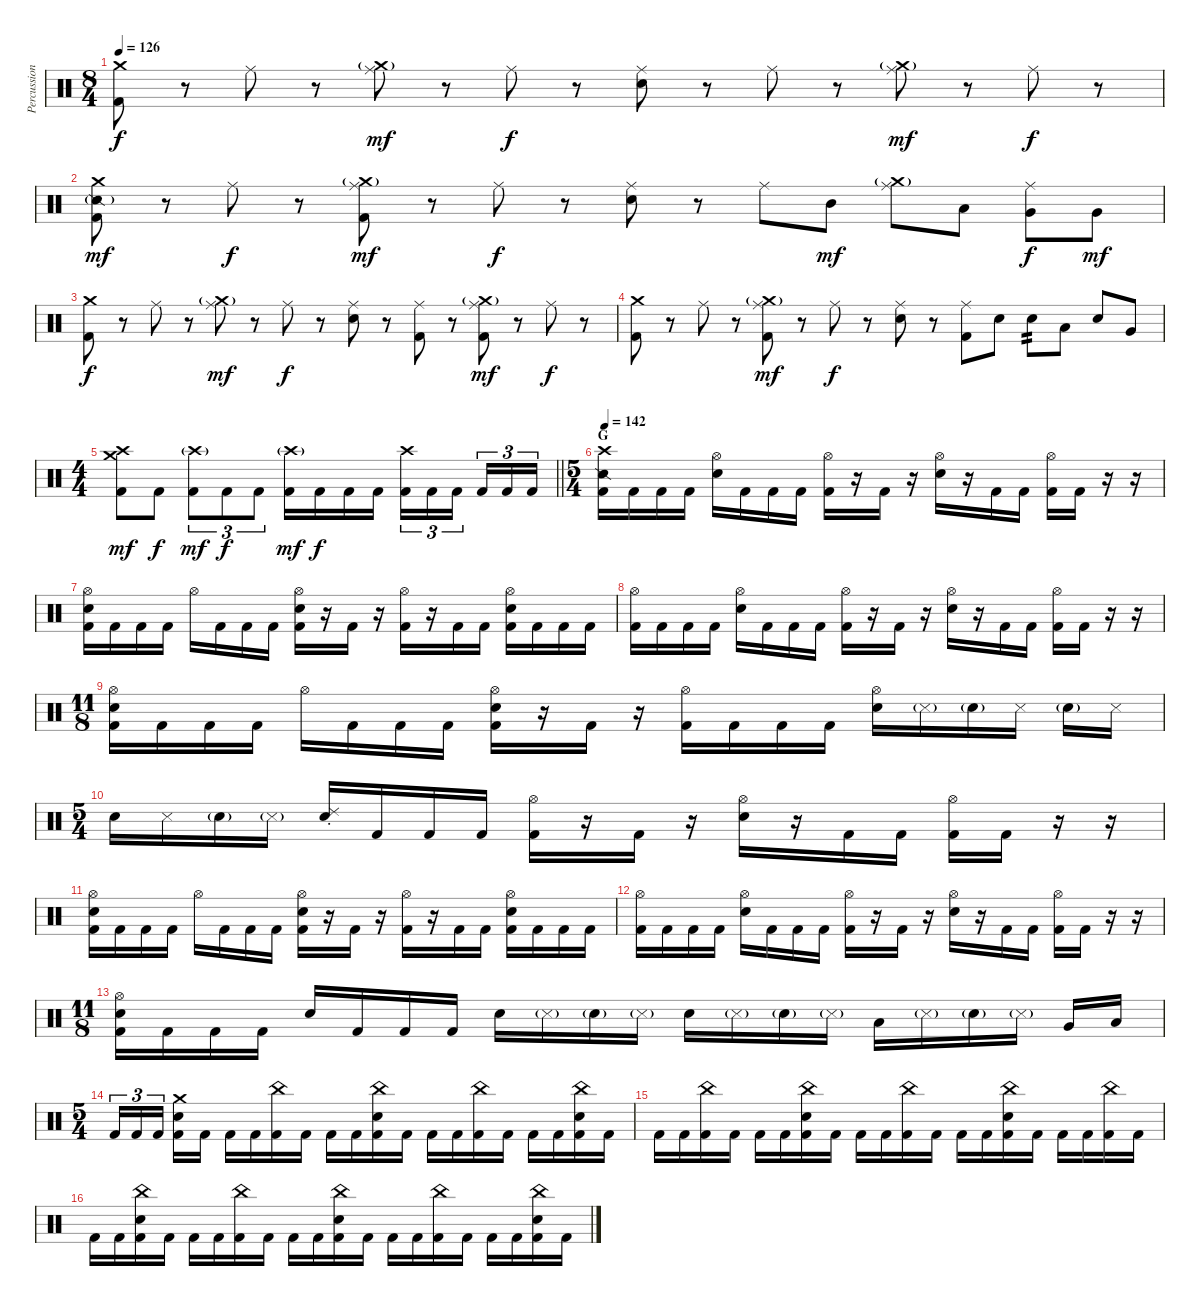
\track ("Percussion" "Percussion") {instrument percussion}
\staff {score}
\articulation defaults
\ts (8 4)
\tempo 126
\clef neutral
\ks c
("Crash medium (hit)" "Kick (hit) 2").8{dy f} r.8 "Ride (middle)".8 r.8 ("Ride (middle)" "Crash medium (hit)"{g}).8{dy mf} r.8 "Ride (middle)".8{dy f} r.8 ("Ride (middle)" "Snare (hit) 2").8 r.8 "Ride (middle)".8 r.8 ("Ride (middle)" "Crash medium (hit)"{g}).8{dy mf} r.8 "Ride (middle)".8{dy f} r.8 |
("Crash medium (hit)" "Snare (side stick) 2"{g} "Kick (hit) 2").8{dy mf} r.8 "Ride (middle)".8{dy f} r.8 ("Ride (middle)" "Crash medium (hit)"{g} "Kick (hit) 2").8{dy mf} r.8 "Ride (middle)".8{dy f} r.8 ("Ride (middle)" "Snare (hit) 2").8 r.8 "Ride (middle)".8 "Mid Tom (hit)".8{dy mf} ("Ride (middle)" "Crash medium (hit)"{g}).8 "Low Tom (hit)".8 ("Ride (middle)" "Very Low Tom (hit)").8{dy f} "Very Low Tom (hit)".8{dy mf} |
("Crash medium (hit)" "Kick (hit) 2").8{dy f} r.8 "Ride (middle)".8 r.8 ("Ride (middle)" "Crash medium (hit)"{g}).8{dy mf} r.8 "Ride (middle)".8{dy f} r.8 ("Ride (middle)" "Snare (hit) 2").8 r.8 ("Ride (middle)" "Kick (hit) 2").8 r.8 ("Ride (middle)" "Crash medium (hit)"{g} "Kick (hit) 2").8{dy mf} r.8 "Ride (middle)".8{dy f} r.8 |
("Crash medium (hit)" "Kick (hit) 2").8 r.8 "Ride (middle)".8 r.8 ("Ride (middle)" "Crash medium (hit)"{g} "Kick (hit) 2").8{dy mf} r.8 "Ride (middle)".8{dy f} r.8 ("Ride (middle)" "Snare (hit) 2").8 r.8 ("Ride (middle)" "Kick (hit) 2").8 "Snare (hit) 2".8 "Snare (hit) 2".8{tp 2} "Low Tom (hit)".8 "Snare (hit) 2".8 "Very Low Tom (hit)".8 |
\ts (4 4)
\barLineRight lightlight
("Crash high (hit)" "Crash medium (hit)" "Kick (hit) 2").8{dy mf} "Kick (hit) 2".8{dy f} ("Crash high (hit)"{g} "Kick (hit) 2").8{tu (3 2) dy mf} "Kick (hit) 2".8{tu (3 2) dy f} "Kick (hit) 2".8{tu (3 2)} ("Crash high (hit)"{g} "Kick (hit) 2").16{dy mf} "Kick (hit) 2".16{dy f} "Kick (hit) 2".16 "Kick (hit) 2".16 ("Crash high (hit)" "Kick (hit) 2").16{tu (3 2)} "Kick (hit) 2".16{tu (3 2)} "Kick (hit) 2".16{tu (3 2) beam splitsecondary} "Kick (hit) 2".16{tu (3 2)} "Kick (hit) 2".16{tu (3 2)} "Kick (hit) 2".16{tu (3 2)} |
\ts (5 4)
\section ("" "G")
\tempo 142
("Crash high (hit)" "Snare (side stick) 2" "Kick (hit) 2").16 "Kick (hit) 2".16 "Kick (hit) 2".16 "Kick (hit) 2".16 ("Hi-Hat (open)" "Snare (hit) 2").16 "Kick (hit) 2".16 "Kick (hit) 2".16 "Kick (hit) 2".16 ("Hi-Hat (open)" "Kick (hit) 2").16 r.16 "Kick (hit) 2".16 r.16 ("Hi-Hat (open)" "Snare (hit) 2").16 r.16 "Kick (hit) 2".16 "Kick (hit) 2".16 ("Hi-Hat (open)" "Kick (hit) 2").16 "Kick (hit) 2".16 r.16 r.16 |
("Hi-Hat (open)" "Snare (hit) 2" "Kick (hit) 2").16 "Kick (hit) 2".16 "Kick (hit) 2".16 "Kick (hit) 2".16 "Hi-Hat (open)".16 "Kick (hit) 2".16 "Kick (hit) 2".16 "Kick (hit) 2".16 ("Hi-Hat (open)" "Snare (hit) 2" "Kick (hit) 2").16 r.16 "Kick (hit) 2".16 r.16 ("Hi-Hat (open)" "Kick (hit) 2").16 r.16 "Kick (hit) 2".16 "Kick (hit) 2".16 ("Hi-Hat (open)" "Snare (hit) 2" "Kick (hit) 2").16 "Kick (hit) 2".16 "Kick (hit) 2".16 "Kick (hit) 2".16 |
("Hi-Hat (open)" "Kick (hit) 2").16 "Kick (hit) 2".16 "Kick (hit) 2".16 "Kick (hit) 2".16 ("Hi-Hat (open)" "Snare (hit) 2").16 "Kick (hit) 2".16 "Kick (hit) 2".16 "Kick (hit) 2".16 ("Hi-Hat (open)" "Kick (hit) 2").16 r.16 "Kick (hit) 2".16 r.16 ("Hi-Hat (open)" "Snare (hit) 2").16 r.16 "Kick (hit) 2".16 "Kick (hit) 2".16 ("Hi-Hat (open)" "Kick (hit) 2").16 "Kick (hit) 2".16 r.16 r.16 |
\ts (11 8)
("Hi-Hat (open)" "Snare (hit) 2" "Kick (hit) 2").16 "Kick (hit) 2".16 "Kick (hit) 2".16 "Kick (hit) 2".16 "Hi-Hat (open)".16 "Kick (hit) 2".16 "Kick (hit) 2".16 "Kick (hit) 2".16 ("Hi-Hat (open)" "Snare (hit) 2" "Kick (hit) 2").16 r.16 "Kick (hit) 2".16 r.16 ("Hi-Hat (open)" "Kick (hit) 2").16 "Kick (hit) 2".16 "Kick (hit) 2".16 "Kick (hit) 2".16 ("Hi-Hat (open)" "Snare (hit) 2").16 "Metronome (hit)"{g}.16 "Snare (hit) 2"{g}.16 "Metronome (hit)".16 "Snare (hit) 2"{g}.16 "Metronome (hit)".16 |
\ts (5 4)
"Snare (hit) 2".16 "Metronome (hit)".16 "Snare (hit) 2"{g}.16 "Metronome (hit)"{g}.16 ("Ride (choke) 2" "Snare (hit) 2").16 "Kick (hit) 2".16 "Kick (hit) 2".16 "Kick (hit) 2".16 ("Hi-Hat (open)" "Kick (hit) 2").16 r.16 "Kick (hit) 2".16 r.16 ("Hi-Hat (open)" "Snare (hit) 2").16 r.16 "Kick (hit) 2".16 "Kick (hit) 2".16 ("Hi-Hat (open)" "Kick (hit) 2").16 "Kick (hit) 2".16 r.16 r.16 |
("Hi-Hat (open)" "Snare (hit) 2" "Kick (hit) 2").16 "Kick (hit) 2".16 "Kick (hit) 2".16 "Kick (hit) 2".16 "Hi-Hat (open)".16 "Kick (hit) 2".16 "Kick (hit) 2".16 "Kick (hit) 2".16 ("Hi-Hat (open)" "Snare (hit) 2" "Kick (hit) 2").16 r.16 "Kick (hit) 2".16 r.16 ("Hi-Hat (open)" "Kick (hit) 2").16 r.16 "Kick (hit) 2".16 "Kick (hit) 2".16 ("Hi-Hat (open)" "Snare (hit) 2" "Kick (hit) 2").16 "Kick (hit) 2".16 "Kick (hit) 2".16 "Kick (hit) 2".16 |
("Hi-Hat (open)" "Kick (hit) 2").16 "Kick (hit) 2".16 "Kick (hit) 2".16 "Kick (hit) 2".16 ("Hi-Hat (open)" "Snare (hit) 2").16 "Kick (hit) 2".16 "Kick (hit) 2".16 "Kick (hit) 2".16 ("Hi-Hat (open)" "Kick (hit) 2").16 r.16 "Kick (hit) 2".16 r.16 ("Hi-Hat (open)" "Snare (hit) 2").16 r.16 "Kick (hit) 2".16 "Kick (hit) 2".16 ("Hi-Hat (open)" "Kick (hit) 2").16 "Kick (hit) 2".16 r.16 r.16 |
\ts (11 8)
("Hi-Hat (open)" "Snare (hit) 2" "Kick (hit) 2").16 "Kick (hit) 2".16 "Kick (hit) 2".16 "Kick (hit) 2".16 "Snare (hit)".16 "Kick (hit) 2".16 "Kick (hit) 2".16 "Kick (hit) 2".16 "Snare (hit) 2".16 "Metronome (hit)"{g}.16 "Snare (hit) 2"{g}.16 "Metronome (hit)"{g}.16 "Snare (hit) 2".16 "Metronome (hit)"{g}.16 "Snare (hit) 2"{g}.16 "Metronome (hit)"{g}.16 "Low Tom (hit)".16 "Metronome (hit)"{g}.16 "Snare (hit) 2"{g}.16 "Metronome (hit)"{g}.16 "Very Low Tom (hit)".16 "Low Floor Tom (hit)".16 |
\ts (5 4)
"Kick (hit) 2".16{tu (3 2)} "Kick (hit) 2".16{tu (3 2)} "Kick (hit) 2".16{tu (3 2) beam splitsecondary} ("Crash medium (hit)" "Snare (hit) 2" "Kick (hit) 2").16 "Kick (hit) 2".16 "Kick (hit) 2".16 "Kick (hit) 2".16 ("China (hit)" "Kick (hit) 2").16 "Kick (hit) 2".16 "Kick (hit) 2".16 "Kick (hit) 2".16 ("China (hit)" "Snare (hit) 2" "Kick (hit) 2").16 "Kick (hit) 2".16 "Kick (hit) 2".16 "Kick (hit) 2".16 ("China (hit)" "Kick (hit) 2").16 "Kick (hit) 2".16 "Kick (hit) 2".16 "Kick (hit) 2".16 ("China (hit)" "Snare (hit) 2" "Kick (hit) 2").16 "Kick (hit) 2".16 |
"Kick (hit) 2".16 "Kick (hit) 2".16 ("China (hit)" "Kick (hit) 2").16 "Kick (hit) 2".16 "Kick (hit) 2".16 "Kick (hit) 2".16 ("China (hit)" "Snare (hit) 2" "Kick (hit) 2").16 "Kick (hit) 2".16 "Kick (hit) 2".16 "Kick (hit) 2".16 ("China (hit)" "Kick (hit) 2").16 "Kick (hit) 2".16 "Kick (hit) 2".16 "Kick (hit) 2".16 ("China (hit)" "Snare (hit) 2" "Kick (hit) 2").16 "Kick (hit) 2".16 "Kick (hit) 2".16 "Kick (hit) 2".16 ("China (hit)" "Kick (hit) 2").16 "Kick (hit) 2".16 |
"Kick (hit) 2".16 "Kick (hit) 2".16 ("China (hit)" "Snare (hit) 2" "Kick (hit) 2").16 "Kick (hit) 2".16 "Kick (hit) 2".16 "Kick (hit) 2".16 ("China (hit)" "Kick (hit) 2").16 "Kick (hit) 2".16 "Kick (hit) 2".16 "Kick (hit) 2".16 ("China (hit)" "Snare (hit) 2" "Kick (hit) 2").16 "Kick (hit) 2".16 "Kick (hit) 2".16 "Kick (hit) 2".16 ("China (hit)" "Kick (hit) 2").16 "Kick (hit) 2".16 "Kick (hit) 2".16 "Kick (hit) 2".16 ("China (hit)" "Snare (hit) 2" "Kick (hit) 2").16 "Kick (hit) 2".16
